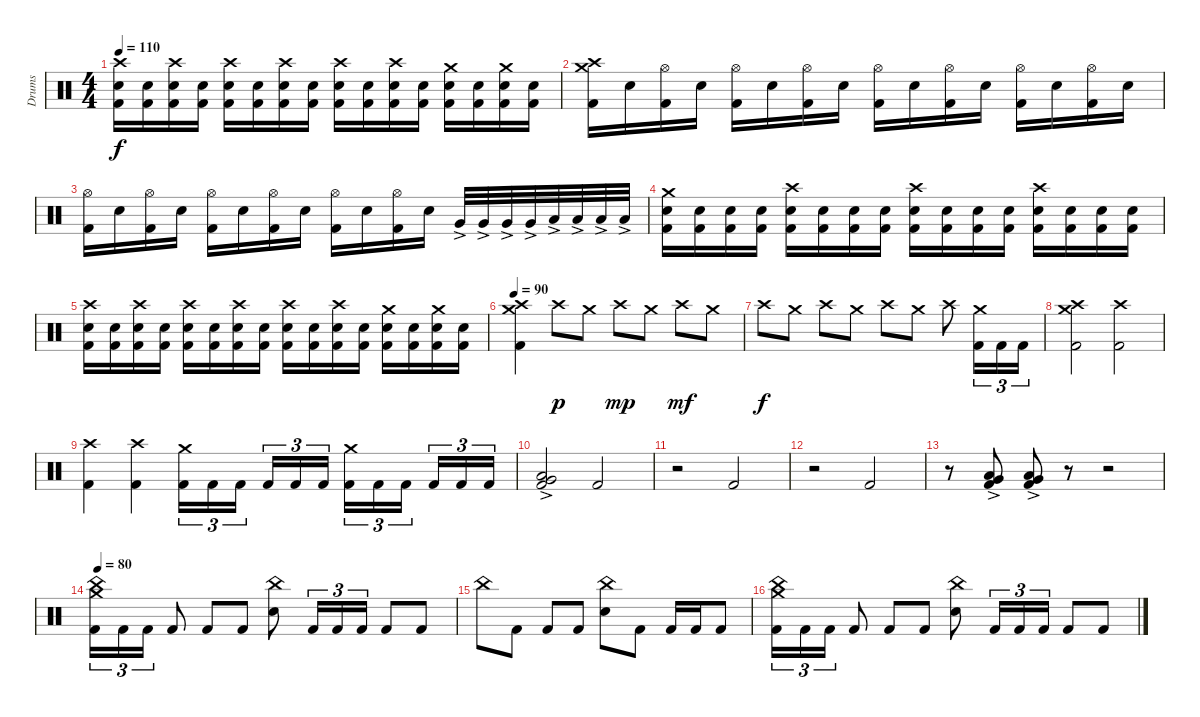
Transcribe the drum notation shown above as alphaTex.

\track ("Drums" "Drums") {instrument percussion}
\staff {score}
\articulation defaults
\ts (4 4)
\tempo 110
\clef neutral
\ks c
("Crash high (hit)" "Electric Snare (hit)" "Kick (hit) 2").16{dy f} ("Electric Snare (hit)" "Kick (hit) 2").16 ("Crash high (hit)" "Electric Snare (hit)" "Kick (hit) 2").16 ("Electric Snare (hit)" "Kick (hit) 2").16 ("Crash high (hit)" "Electric Snare (hit)" "Kick (hit) 2").16 ("Electric Snare (hit)" "Kick (hit) 2").16 ("Crash high (hit)" "Electric Snare (hit)" "Kick (hit) 2").16 ("Electric Snare (hit)" "Kick (hit) 2").16 ("Crash high (hit)" "Electric Snare (hit)" "Kick (hit) 2").16 ("Electric Snare (hit)" "Kick (hit) 2").16 ("Crash high (hit)" "Electric Snare (hit)" "Kick (hit) 2").16 ("Electric Snare (hit)" "Kick (hit) 2").16 ("Crash medium (hit)" "Electric Snare (hit)" "Kick (hit) 2").16 ("Electric Snare (hit)" "Kick (hit) 2").16 ("Crash medium (hit)" "Electric Snare (hit)" "Kick (hit) 2").16 ("Electric Snare (hit)" "Kick (hit) 2").16 |
("Crash medium (hit)" "Crash high (hit)" "Kick (hit) 2").16 "Electric Snare (hit)".16 ("Hi-Hat (open)" "Kick (hit) 2").16 "Electric Snare (hit)".16 ("Hi-Hat (open)" "Kick (hit) 2").16 "Electric Snare (hit)".16 ("Hi-Hat (open)" "Kick (hit) 2").16 "Electric Snare (hit)".16 ("Hi-Hat (open)" "Kick (hit) 2").16 "Electric Snare (hit)".16 ("Hi-Hat (open)" "Kick (hit) 2").16 "Electric Snare (hit)".16 ("Hi-Hat (open)" "Kick (hit) 2").16 "Electric Snare (hit)".16 ("Hi-Hat (open)" "Kick (hit) 2").16 "Electric Snare (hit)".16 |
("Hi-Hat (open)" "Kick (hit) 2").16 "Electric Snare (hit)".16 ("Hi-Hat (open)" "Kick (hit) 2").16 "Electric Snare (hit)".16 ("Hi-Hat (open)" "Kick (hit) 2").16 "Electric Snare (hit)".16 ("Hi-Hat (open)" "Kick (hit) 2").16 "Electric Snare (hit)".16 ("Hi-Hat (open)" "Kick (hit) 2").16 "Electric Snare (hit)".16 ("Hi-Hat (open)" "Kick (hit) 2").16 "Electric Snare (hit)".16 "Very Low Tom (hit)"{ac}.32 "Very Low Tom (hit)"{ac}.32 "Very Low Tom (hit)"{ac}.32 "Very Low Tom (hit)"{ac}.32 "Low Floor Tom (hit)"{ac}.32 "Low Floor Tom (hit)"{ac}.32 "Low Floor Tom (hit)"{ac}.32 "Low Floor Tom (hit)"{ac}.32 |
("Crash medium (hit)" "Electric Snare (hit)" "Kick (hit) 2").16 ("Electric Snare (hit)" "Kick (hit) 2").16 ("Electric Snare (hit)" "Kick (hit) 2").16 ("Electric Snare (hit)" "Kick (hit) 2").16 ("Crash high (hit)" "Electric Snare (hit)" "Kick (hit) 2").16 ("Electric Snare (hit)" "Kick (hit) 2").16 ("Electric Snare (hit)" "Kick (hit) 2").16 ("Electric Snare (hit)" "Kick (hit) 2").16 ("Crash high (hit)" "Electric Snare (hit)" "Kick (hit) 2").16 ("Electric Snare (hit)" "Kick (hit) 2").16 ("Electric Snare (hit)" "Kick (hit) 2").16 ("Electric Snare (hit)" "Kick (hit) 2").16 ("Crash high (hit)" "Electric Snare (hit)" "Kick (hit) 2").16 ("Electric Snare (hit)" "Kick (hit) 2").16 ("Electric Snare (hit)" "Kick (hit) 2").16 ("Electric Snare (hit)" "Kick (hit) 2").16 |
("Crash high (hit)" "Electric Snare (hit)" "Kick (hit) 2").16 ("Electric Snare (hit)" "Kick (hit) 2").16 ("Crash high (hit)" "Electric Snare (hit)" "Kick (hit) 2").16 ("Electric Snare (hit)" "Kick (hit) 2").16 ("Crash high (hit)" "Electric Snare (hit)" "Kick (hit) 2").16 ("Electric Snare (hit)" "Kick (hit) 2").16 ("Crash high (hit)" "Electric Snare (hit)" "Kick (hit) 2").16 ("Electric Snare (hit)" "Kick (hit) 2").16 ("Crash high (hit)" "Electric Snare (hit)" "Kick (hit) 2").16 ("Electric Snare (hit)" "Kick (hit) 2").16 ("Crash high (hit)" "Electric Snare (hit)" "Kick (hit) 2").16 ("Electric Snare (hit)" "Kick (hit) 2").16 ("Crash medium (hit)" "Electric Snare (hit)" "Kick (hit) 2").16 ("Electric Snare (hit)" "Kick (hit) 2").16 ("Crash medium (hit)" "Electric Snare (hit)" "Kick (hit) 2").16 ("Electric Snare (hit)" "Kick (hit) 2").16 |
\tempo 90
("Crash medium (hit)" "Crash high (hit)" "Kick (hit) 2").4 "Crash high (hit)".8{dy p} "Crash medium (hit)".8 "Crash high (hit)".8{dy mp} "Crash medium (hit)".8 "Crash high (hit)".8{dy mf} "Crash medium (hit)".8 |
"Crash high (hit)".8{dy f} "Crash medium (hit)".8 "Crash high (hit)".8 "Crash medium (hit)".8 "Crash high (hit)".8 "Crash medium (hit)".8 "Crash high (hit)".8 ("Crash medium (hit)" "Kick (hit) 2").16{tu (3 2)} "Kick (hit) 2".16{tu (3 2)} "Kick (hit) 2".16{tu (3 2)} |
("Crash medium (hit)" "Crash high (hit)" "Kick (hit) 2").2 ("Crash high (hit)" "Kick (hit) 2").2 |
("Crash high (hit)" "Kick (hit) 2").4 ("Crash high (hit)" "Kick (hit) 2").4 ("Crash medium (hit)" "Kick (hit) 2").16{tu (3 2)} "Kick (hit) 2".16{tu (3 2)} "Kick (hit) 2".16{tu (3 2)} "Kick (hit) 2".16{tu (3 2)} "Kick (hit) 2".16{tu (3 2)} "Kick (hit) 2".16{tu (3 2)} ("Crash medium (hit)" "Kick (hit) 2").16{tu (3 2)} "Kick (hit) 2".16{tu (3 2)} "Kick (hit) 2".16{tu (3 2)} "Kick (hit) 2".16{tu (3 2)} "Kick (hit) 2".16{tu (3 2)} "Kick (hit) 2".16{tu (3 2)} |
("Very Low Tom (hit)"{ac} "Low Floor Tom (hit)"{ac} "Kick (hit) 2").2 "Kick (hit) 2".2 |
r.2 "Kick (hit) 2".2 |
r.2 "Kick (hit) 2".2 |
r.8 ("Very Low Tom (hit)"{ac} "Low Floor Tom (hit)"{ac} "Kick (hit) 2").8 ("Very Low Tom (hit)"{ac} "Low Floor Tom (hit)"{ac} "Kick (hit) 2").8 r.8 r.2 |
\tempo 80
("Crash medium (hit)" "China (hit)" "Kick (hit) 2").16{tu (3 2)} "Kick (hit) 2".16{tu (3 2)} "Kick (hit) 2".16{tu (3 2)} "Kick (hit) 2".8 "Kick (hit) 2".8 "Kick (hit) 2".8 ("China (hit)" "Electric Snare (hit)").8 "Kick (hit) 2".16{tu (3 2)} "Kick (hit) 2".16{tu (3 2)} "Kick (hit) 2".16{tu (3 2)} "Kick (hit) 2".8 "Kick (hit) 2".8 |
"China (hit)".8 "Kick (hit) 2".8 "Kick (hit) 2".8 "Kick (hit) 2".8 ("China (hit)" "Electric Snare (hit)").8 "Kick (hit) 2".8 "Kick (hit) 2".16 "Kick (hit) 2".16 "Kick (hit) 2".8 |
("Crash medium (hit)" "China (hit)" "Kick (hit) 2").16{tu (3 2)} "Kick (hit) 2".16{tu (3 2)} "Kick (hit) 2".16{tu (3 2)} "Kick (hit) 2".8 "Kick (hit) 2".8 "Kick (hit) 2".8 ("China (hit)" "Electric Snare (hit)").8 "Kick (hit) 2".16{tu (3 2)} "Kick (hit) 2".16{tu (3 2)} "Kick (hit) 2".16{tu (3 2)} "Kick (hit) 2".8 "Kick (hit) 2".8
